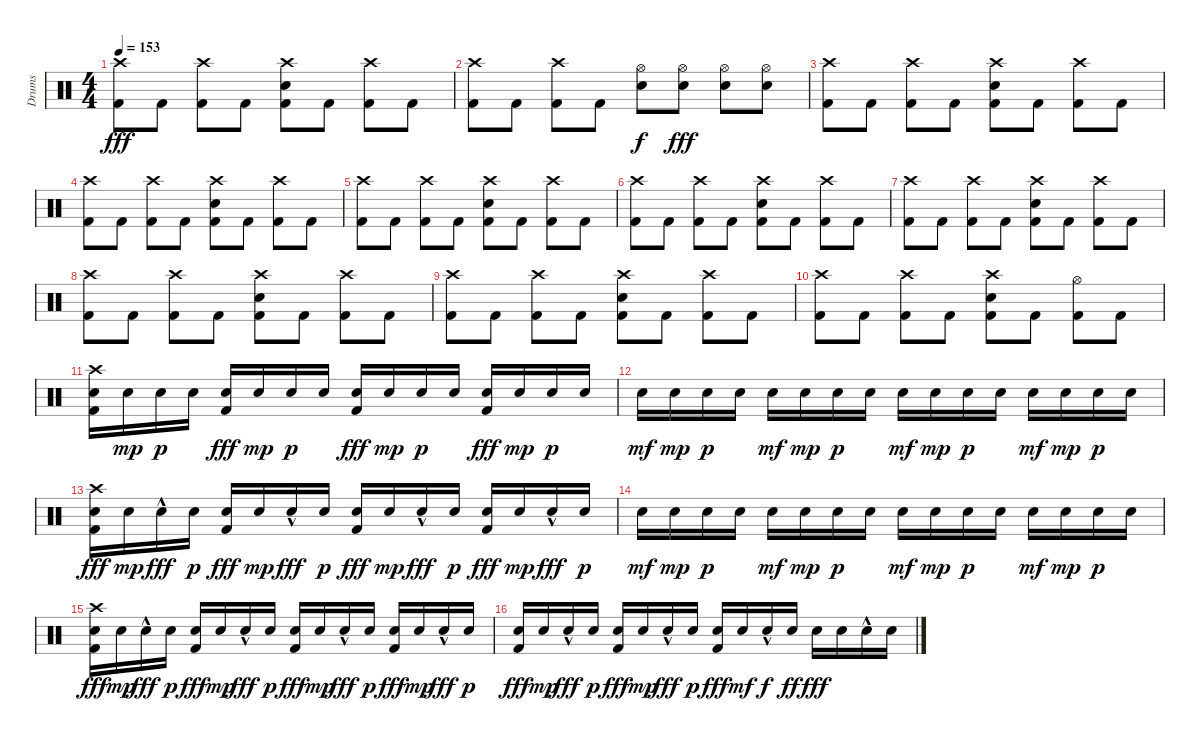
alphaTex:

\track ("Drums" "Drums") {instrument percussion}
\staff {score}
\articulation defaults
\ts (4 4)
\tempo 153
\clef neutral
\ks c
("Crash high (hit)" "Kick (hit) 2").8{dy fff} "Kick (hit) 2".8 ("Crash high (hit)" "Kick (hit) 2").8 "Kick (hit) 2".8 ("Crash high (hit)" "Electric Snare (hit)" "Kick (hit) 2").8 "Kick (hit) 2".8 ("Crash high (hit)" "Kick (hit) 2").8 "Kick (hit) 2".8 |
("Crash high (hit)" "Kick (hit) 2").8 "Kick (hit) 2".8 ("Crash high (hit)" "Kick (hit) 2").8 "Kick (hit) 2".8 ("Hi-Hat (open)" "Electric Snare (hit)").8{dy f} ("Hi-Hat (open)" "Electric Snare (hit)").8{dy fff} ("Hi-Hat (open)" "Electric Snare (hit)").8 ("Hi-Hat (open)" "Electric Snare (hit)").8 |
("Crash high (hit)" "Kick (hit) 2").8 "Kick (hit) 2".8 ("Crash high (hit)" "Kick (hit) 2").8 "Kick (hit) 2".8 ("Crash high (hit)" "Electric Snare (hit)" "Kick (hit) 2").8 "Kick (hit) 2".8 ("Crash high (hit)" "Kick (hit) 2").8 "Kick (hit) 2".8 |
("Crash high (hit)" "Kick (hit) 2").8 "Kick (hit) 2".8 ("Crash high (hit)" "Kick (hit) 2").8 "Kick (hit) 2".8 ("Crash high (hit)" "Electric Snare (hit)" "Kick (hit) 2").8 "Kick (hit) 2".8 ("Crash high (hit)" "Kick (hit) 2").8 "Kick (hit) 2".8 |
("Crash high (hit)" "Kick (hit) 2").8 "Kick (hit) 2".8 ("Crash high (hit)" "Kick (hit) 2").8 "Kick (hit) 2".8 ("Crash high (hit)" "Electric Snare (hit)" "Kick (hit) 2").8 "Kick (hit) 2".8 ("Crash high (hit)" "Kick (hit) 2").8 "Kick (hit) 2".8 |
("Crash high (hit)" "Kick (hit) 2").8 "Kick (hit) 2".8 ("Crash high (hit)" "Kick (hit) 2").8 "Kick (hit) 2".8 ("Crash high (hit)" "Electric Snare (hit)" "Kick (hit) 2").8 "Kick (hit) 2".8 ("Crash high (hit)" "Kick (hit) 2").8 "Kick (hit) 2".8 |
("Crash high (hit)" "Kick (hit) 2").8 "Kick (hit) 2".8 ("Crash high (hit)" "Kick (hit) 2").8 "Kick (hit) 2".8 ("Crash high (hit)" "Electric Snare (hit)" "Kick (hit) 2").8 "Kick (hit) 2".8 ("Crash high (hit)" "Kick (hit) 2").8 "Kick (hit) 2".8 |
("Crash high (hit)" "Kick (hit) 2").8 "Kick (hit) 2".8 ("Crash high (hit)" "Kick (hit) 2").8 "Kick (hit) 2".8 ("Crash high (hit)" "Electric Snare (hit)" "Kick (hit) 2").8 "Kick (hit) 2".8 ("Crash high (hit)" "Kick (hit) 2").8 "Kick (hit) 2".8 |
("Crash high (hit)" "Kick (hit) 2").8 "Kick (hit) 2".8 ("Crash high (hit)" "Kick (hit) 2").8 "Kick (hit) 2".8 ("Crash high (hit)" "Electric Snare (hit)" "Kick (hit) 2").8 "Kick (hit) 2".8 ("Crash high (hit)" "Kick (hit) 2").8 "Kick (hit) 2".8 |
("Crash high (hit)" "Kick (hit) 2").8 "Kick (hit) 2".8 ("Crash high (hit)" "Kick (hit) 2").8 "Kick (hit) 2".8 ("Crash high (hit)" "Electric Snare (hit)" "Kick (hit) 2").8 "Kick (hit) 2".8 ("Hi-Hat (open)" "Kick (hit) 2").8 "Kick (hit) 2".8 |
("Crash high (hit)" "Electric Snare (hit)" "Kick (hit) 2").16 "Electric Snare (hit)".16{dy mp} "Electric Snare (hit)".16{dy p} "Electric Snare (hit)".16 ("Electric Snare (hit)" "Kick (hit) 2").16{dy fff} "Electric Snare (hit)".16{dy mp} "Electric Snare (hit)".16{dy p} "Electric Snare (hit)".16 ("Electric Snare (hit)" "Kick (hit) 2").16{dy fff} "Electric Snare (hit)".16{dy mp} "Electric Snare (hit)".16{dy p} "Electric Snare (hit)".16 ("Electric Snare (hit)" "Kick (hit) 2").16{dy fff} "Electric Snare (hit)".16{dy mp} "Electric Snare (hit)".16{dy p} "Electric Snare (hit)".16 |
"Electric Snare (hit)".16{dy mf} "Electric Snare (hit)".16{dy mp} "Electric Snare (hit)".16{dy p} "Electric Snare (hit)".16 "Electric Snare (hit)".16{dy mf} "Electric Snare (hit)".16{dy mp} "Electric Snare (hit)".16{dy p} "Electric Snare (hit)".16 "Electric Snare (hit)".16{dy mf} "Electric Snare (hit)".16{dy mp} "Electric Snare (hit)".16{dy p} "Electric Snare (hit)".16 "Electric Snare (hit)".16{dy mf} "Electric Snare (hit)".16{dy mp} "Electric Snare (hit)".16{dy p} "Electric Snare (hit)".16 |
("Crash high (hit)" "Electric Snare (hit)" "Kick (hit) 2").16{dy fff} "Electric Snare (hit)".16{dy mp} "Electric Snare (hit)"{hac}.16{dy fff} "Electric Snare (hit)".16{dy p} ("Electric Snare (hit)" "Kick (hit) 2").16{dy fff} "Electric Snare (hit)".16{dy mp} "Electric Snare (hit)"{hac}.16{dy fff} "Electric Snare (hit)".16{dy p} ("Electric Snare (hit)" "Kick (hit) 2").16{dy fff} "Electric Snare (hit)".16{dy mp} "Electric Snare (hit)"{hac}.16{dy fff} "Electric Snare (hit)".16{dy p} ("Electric Snare (hit)" "Kick (hit) 2").16{dy fff} "Electric Snare (hit)".16{dy mp} "Electric Snare (hit)"{hac}.16{dy fff} "Electric Snare (hit)".16{dy p} |
"Electric Snare (hit)".16{dy mf} "Electric Snare (hit)".16{dy mp} "Electric Snare (hit)".16{dy p} "Electric Snare (hit)".16 "Electric Snare (hit)".16{dy mf} "Electric Snare (hit)".16{dy mp} "Electric Snare (hit)".16{dy p} "Electric Snare (hit)".16 "Electric Snare (hit)".16{dy mf} "Electric Snare (hit)".16{dy mp} "Electric Snare (hit)".16{dy p} "Electric Snare (hit)".16 "Electric Snare (hit)".16{dy mf} "Electric Snare (hit)".16{dy mp} "Electric Snare (hit)".16{dy p} "Electric Snare (hit)".16 |
("Crash high (hit)" "Electric Snare (hit)" "Kick (hit) 2").16{dy fff} "Electric Snare (hit)".16{dy mp} "Electric Snare (hit)"{hac}.16{dy fff} "Electric Snare (hit)".16{dy p} ("Electric Snare (hit)" "Kick (hit) 2").16{dy fff} "Electric Snare (hit)".16{dy mp} "Electric Snare (hit)"{hac}.16{dy fff} "Electric Snare (hit)".16{dy p} ("Electric Snare (hit)" "Kick (hit) 2").16{dy fff} "Electric Snare (hit)".16{dy mp} "Electric Snare (hit)"{hac}.16{dy fff} "Electric Snare (hit)".16{dy p} ("Electric Snare (hit)" "Kick (hit) 2").16{dy fff} "Electric Snare (hit)".16{dy mp} "Electric Snare (hit)"{hac}.16{dy fff} "Electric Snare (hit)".16{dy p} |
("Electric Snare (hit)" "Kick (hit) 2").16{dy fff} "Electric Snare (hit)".16{dy mp} "Electric Snare (hit)"{hac}.16{dy fff} "Electric Snare (hit)".16{dy p} ("Electric Snare (hit)" "Kick (hit) 2").16{dy fff} "Electric Snare (hit)".16{dy mp} "Electric Snare (hit)"{hac}.16{dy fff} "Electric Snare (hit)".16{dy p} ("Electric Snare (hit)" "Kick (hit) 2").16{dy fff} "Electric Snare (hit)".16{dy mf} "Electric Snare (hit)"{hac}.16{dy f} "Electric Snare (hit)".16{dy ff} "Electric Snare (hit)".16{dy fff} "Electric Snare (hit)".16 "Electric Snare (hit)"{hac}.16 "Electric Snare (hit)".16
